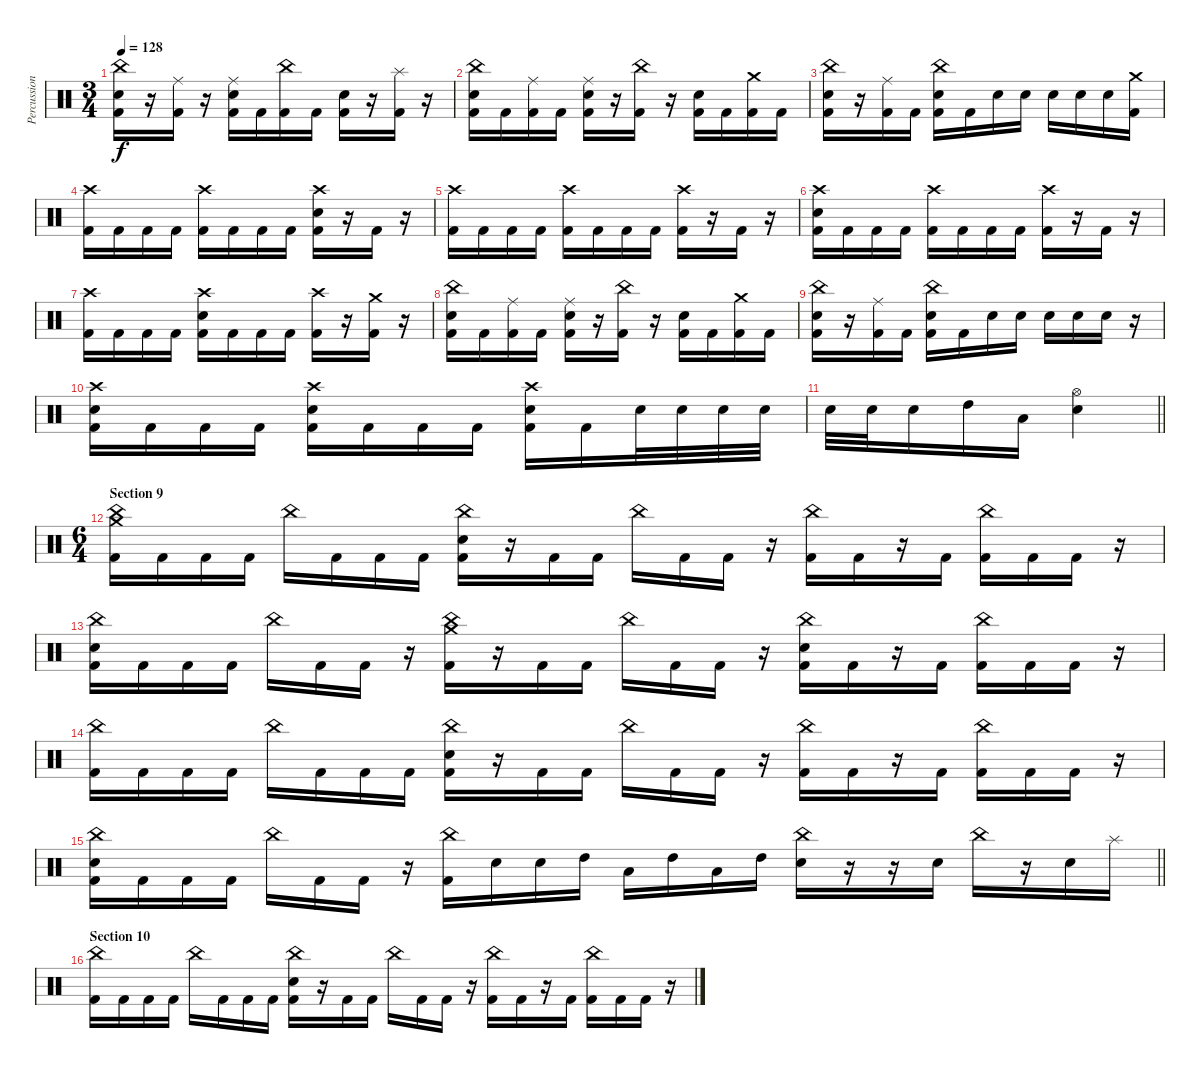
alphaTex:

\track ("Percussion" "Percussion") {instrument percussion}
\staff {score}
\articulation defaults
\ts (3 4)
\tempo 128
\clef neutral
\ks c
("China (hit)" "Snare (hit) 2" "Kick (hit) 2").16{dy f} r.16 ("Ride (middle)" "Kick (hit) 2").16 r.16 ("Ride (middle)" "Snare (hit) 2" "Kick (hit) 2").16 "Kick (hit) 2".16 ("China (hit)" "Kick (hit) 2").16 "Kick (hit) 2".16 ("Snare (hit) 2" "Kick (hit) 2").16 r.16 ("Splash (hit)" "Kick (hit) 2").16 r.16 |
("China (hit)" "Snare (hit) 2" "Kick (hit) 2").16 "Kick (hit) 2".16 ("Ride (middle)" "Kick (hit) 2").16 "Kick (hit) 2".16 ("Ride (middle)" "Snare (hit) 2" "Kick (hit) 2").16 r.16 ("China (hit)" "Kick (hit) 2").16 r.16 ("Snare (hit) 2" "Kick (hit) 2").16 "Kick (hit) 2".16 ("Crash medium (hit)" "Kick (hit) 2").16 "Kick (hit) 2".16 |
("China (hit)" "Snare (hit) 2" "Kick (hit) 2").16 r.16 ("Ride (middle)" "Kick (hit) 2").16 "Kick (hit) 2".16 ("China (hit)" "Snare (hit) 2" "Kick (hit) 2").16 "Kick (hit) 2".16 "Snare (hit) 2".16 "Snare (hit) 2".16 "Snare (hit) 2".16 "Snare (hit) 2".16 "Snare (hit) 2".16 ("Crash medium (hit)" "Kick (hit) 2").16 |
("Crash high (hit)" "Kick (hit) 2").16 "Kick (hit) 2".16 "Kick (hit) 2".16 "Kick (hit) 2".16 ("Crash high (hit)" "Kick (hit) 2").16 "Kick (hit) 2".16 "Kick (hit) 2".16 "Kick (hit) 2".16 ("Crash high (hit)" "Snare (hit) 2" "Kick (hit) 2").16 r.16 "Kick (hit) 2".16 r.16 |
("Crash high (hit)" "Kick (hit) 2").16 "Kick (hit) 2".16 "Kick (hit) 2".16 "Kick (hit) 2".16 ("Crash high (hit)" "Kick (hit) 2").16 "Kick (hit) 2".16 "Kick (hit) 2".16 "Kick (hit) 2".16 ("Crash high (hit)" "Kick (hit) 2").16 r.16 "Kick (hit) 2".16 r.16 |
("Crash high (hit)" "Snare (hit) 2" "Kick (hit) 2").16 "Kick (hit) 2".16 "Kick (hit) 2".16 "Kick (hit) 2".16 ("Crash high (hit)" "Kick (hit) 2").16 "Kick (hit) 2".16 "Kick (hit) 2".16 "Kick (hit) 2".16 ("Crash high (hit)" "Kick (hit) 2").16 r.16 "Kick (hit) 2".16 r.16 |
("Crash high (hit)" "Kick (hit) 2").16 "Kick (hit) 2".16 "Kick (hit) 2".16 "Kick (hit) 2".16 ("Crash high (hit)" "Snare (hit) 2" "Kick (hit) 2").16 "Kick (hit) 2".16 "Kick (hit) 2".16 "Kick (hit) 2".16 ("Crash high (hit)" "Kick (hit) 2").16 r.16 ("Crash medium (hit)" "Kick (hit) 2").16 r.16 |
("China (hit)" "Snare (hit) 2" "Kick (hit) 2").16 "Kick (hit) 2".16 ("Ride (middle)" "Kick (hit) 2").16 "Kick (hit) 2".16 ("Ride (middle)" "Snare (hit) 2" "Kick (hit) 2").16 r.16 ("China (hit)" "Kick (hit) 2").16 r.16 ("Snare (hit) 2" "Kick (hit) 2").16 "Kick (hit) 2".16 ("Crash medium (hit)" "Kick (hit) 2").16 "Kick (hit) 2".16 |
("China (hit)" "Snare (hit) 2" "Kick (hit) 2").16 r.16 ("Ride (middle)" "Kick (hit) 2").16 "Kick (hit) 2".16 ("China (hit)" "Snare (hit) 2" "Kick (hit) 2").16 "Kick (hit) 2".16 "Snare (hit) 2".16 "Snare (hit) 2".16 "Snare (hit) 2".16 "Snare (hit) 2".16 "Snare (hit) 2".16 r.16 |
("Crash high (hit)" "Snare (hit) 2" "Kick (hit) 2").16 "Kick (hit) 2".16 "Kick (hit) 2".16 "Kick (hit) 2".16 ("Crash high (hit)" "Snare (hit) 2" "Kick (hit) 2").16 "Kick (hit) 2".16 "Kick (hit) 2".16 "Kick (hit) 2".16 ("Crash high (hit)" "Snare (hit) 2" "Kick (hit) 2").16 "Kick (hit) 2".16 "Snare (hit) 2".32 "Snare (hit) 2".32 "Snare (hit) 2".32 "Snare (hit) 2".32 |
\barLineRight lightlight "Snare (hit) 2".32 "Snare (hit) 2".32 "Snare (hit) 2".16 "High Tom (hit)".16 "Low Tom (hit)".16
("Hi-Hat (open)" "Snare (hit) 2").4 |
\ts (6 4)
\section ("" "Section 9")
("China (hit)" "Crash medium (hit)" "Kick (hit) 2").16 "Kick (hit) 2".16 "Kick (hit) 2".16 "Kick (hit) 2".16 "China (hit)".16 "Kick (hit) 2".16 "Kick (hit) 2".16 "Kick (hit) 2".16 ("China (hit)" "Snare (hit) 2" "Kick (hit) 2").16 r.16 "Kick (hit) 2".16 "Kick (hit) 2".16 "China (hit)".16 "Kick (hit) 2".16 "Kick (hit) 2".16 r.16 ("China (hit)" "Kick (hit) 2").16 "Kick (hit) 2".16 r.16 "Kick (hit) 2".16 ("China (hit)" "Kick (hit) 2").16 "Kick (hit) 2".16 "Kick (hit) 2".16 r.16 |
("China (hit)" "Snare (hit) 2" "Kick (hit) 2").16 "Kick (hit) 2".16 "Kick (hit) 2".16 "Kick (hit) 2".16 "China (hit)".16 "Kick (hit) 2".16 "Kick (hit) 2".16 r.16 ("China (hit)" "Crash medium (hit)" "Kick (hit) 2").16 r.16 "Kick (hit) 2".16 "Kick (hit) 2".16 "China (hit)".16 "Kick (hit) 2".16 "Kick (hit) 2".16 r.16 ("China (hit)" "Snare (hit) 2" "Kick (hit) 2").16 "Kick (hit) 2".16 r.16 "Kick (hit) 2".16 ("China (hit)" "Kick (hit) 2").16 "Kick (hit) 2".16 "Kick (hit) 2".16 r.16 |
("China (hit)" "Kick (hit) 2").16 "Kick (hit) 2".16 "Kick (hit) 2".16 "Kick (hit) 2".16 "China (hit)".16 "Kick (hit) 2".16 "Kick (hit) 2".16 "Kick (hit) 2".16 ("China (hit)" "Snare (hit) 2" "Kick (hit) 2").16 r.16 "Kick (hit) 2".16 "Kick (hit) 2".16 "China (hit)".16 "Kick (hit) 2".16 "Kick (hit) 2".16 r.16 ("China (hit)" "Kick (hit) 2").16 "Kick (hit) 2".16 r.16 "Kick (hit) 2".16 ("China (hit)" "Kick (hit) 2").16 "Kick (hit) 2".16 "Kick (hit) 2".16 r.16 |
\barLineRight lightlight
("China (hit)" "Snare (hit) 2" "Kick (hit) 2").16 "Kick (hit) 2".16 "Kick (hit) 2".16 "Kick (hit) 2".16 "China (hit)".16 "Kick (hit) 2".16 "Kick (hit) 2".16 r.16 ("China (hit)" "Kick (hit) 2").16 "Snare (hit) 2".16 "Snare (hit) 2".16 "High Tom (hit)".16 "Low Tom (hit)".16 "High Tom (hit)".16 "Low Tom (hit)".16 "High Tom (hit)".16 ("China (hit)" "Snare (hit) 2").16 r.16 r.16 "Snare (hit) 2".16 "China (hit)".16 r.16 "Snare (hit) 2".16 "Splash (hit)".16 |
\section ("" "Section 10")
("China (hit)" "Kick (hit) 2").16 "Kick (hit) 2".16 "Kick (hit) 2".16 "Kick (hit) 2".16 "China (hit)".16 "Kick (hit) 2".16 "Kick (hit) 2".16 "Kick (hit) 2".16 ("China (hit)" "Snare (hit) 2" "Kick (hit) 2").16 r.16 "Kick (hit) 2".16 "Kick (hit) 2".16 "China (hit)".16 "Kick (hit) 2".16 "Kick (hit) 2".16 r.16 ("China (hit)" "Kick (hit) 2").16 "Kick (hit) 2".16 r.16 "Kick (hit) 2".16 ("China (hit)" "Kick (hit) 2").16 "Kick (hit) 2".16 "Kick (hit) 2".16 r.16
